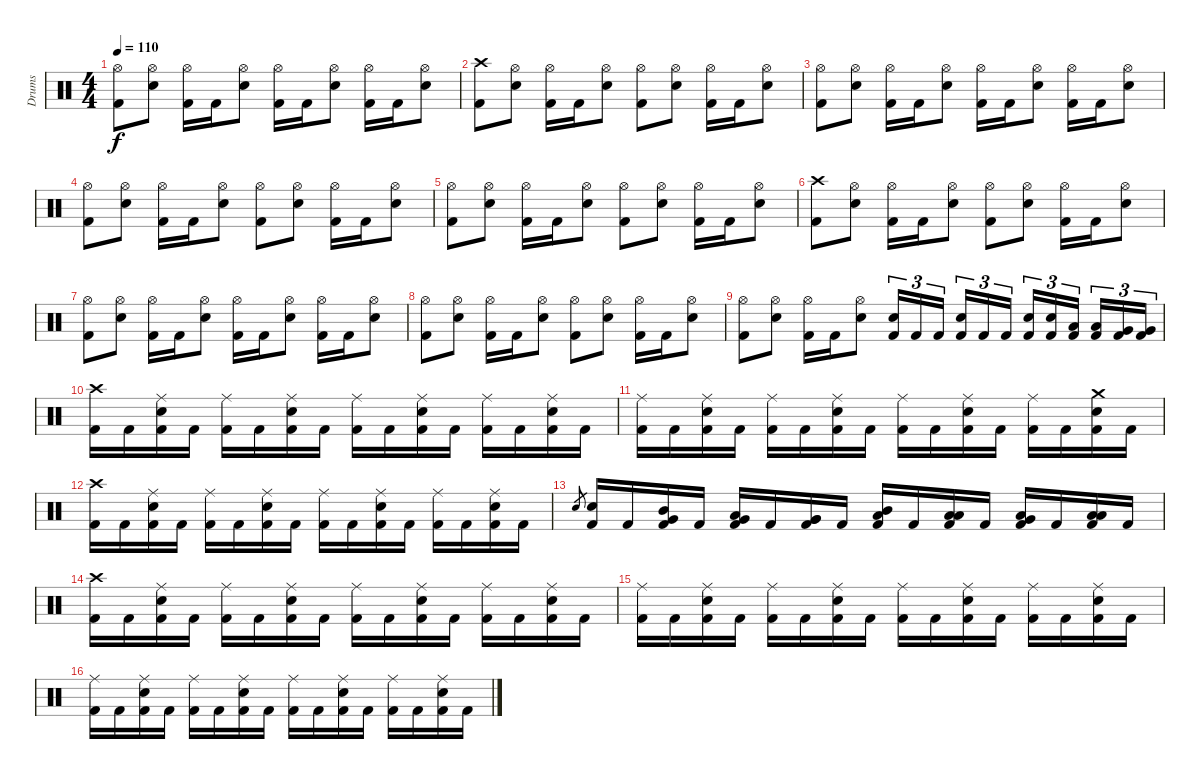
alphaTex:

\track ("Drums" "Drums") {instrument percussion}
\staff {score}
\articulation defaults
\ts (4 4)
\tempo 110
\clef neutral
\ks c
("Hi-Hat (open)" "Kick (hit) 2").8{dy f} ("Hi-Hat (open)" "Electric Snare (hit)").8 ("Hi-Hat (open)" "Kick (hit) 2").16 "Kick (hit) 2".16 ("Hi-Hat (open)" "Electric Snare (hit)").8 ("Hi-Hat (open)" "Kick (hit) 2").16 "Kick (hit) 2".16 ("Hi-Hat (open)" "Electric Snare (hit)").8 ("Hi-Hat (open)" "Kick (hit) 2").16 "Kick (hit) 2".16 ("Hi-Hat (open)" "Electric Snare (hit)").8 |
("Crash high (hit)" "Kick (hit) 2").8 ("Hi-Hat (open)" "Electric Snare (hit)").8 ("Hi-Hat (open)" "Kick (hit) 2").16 "Kick (hit) 2".16 ("Hi-Hat (open)" "Electric Snare (hit)").8 ("Hi-Hat (open)" "Kick (hit) 2").8 ("Hi-Hat (open)" "Electric Snare (hit)").8 ("Hi-Hat (open)" "Kick (hit) 2").16 "Kick (hit) 2".16 ("Hi-Hat (open)" "Electric Snare (hit)").8 |
("Hi-Hat (open)" "Kick (hit) 2").8 ("Hi-Hat (open)" "Electric Snare (hit)").8 ("Hi-Hat (open)" "Kick (hit) 2").16 "Kick (hit) 2".16 ("Hi-Hat (open)" "Electric Snare (hit)").8 ("Hi-Hat (open)" "Kick (hit) 2").16 "Kick (hit) 2".16 ("Hi-Hat (open)" "Electric Snare (hit)").8 ("Hi-Hat (open)" "Kick (hit) 2").16 "Kick (hit) 2".16 ("Hi-Hat (open)" "Electric Snare (hit)").8 |
("Hi-Hat (open)" "Kick (hit) 2").8 ("Hi-Hat (open)" "Electric Snare (hit)").8 ("Hi-Hat (open)" "Kick (hit) 2").16 "Kick (hit) 2".16 ("Hi-Hat (open)" "Electric Snare (hit)").8 ("Hi-Hat (open)" "Kick (hit) 2").8 ("Hi-Hat (open)" "Electric Snare (hit)").8 ("Hi-Hat (open)" "Kick (hit) 2").16 "Kick (hit) 2".16 ("Hi-Hat (open)" "Electric Snare (hit)").8 |
("Hi-Hat (open)" "Kick (hit) 2").8 ("Hi-Hat (open)" "Electric Snare (hit)").8 ("Hi-Hat (open)" "Kick (hit) 2").16 "Kick (hit) 2".16 ("Hi-Hat (open)" "Electric Snare (hit)").8 ("Hi-Hat (open)" "Kick (hit) 2").8 ("Hi-Hat (open)" "Electric Snare (hit)").8 ("Hi-Hat (open)" "Kick (hit) 2").16 "Kick (hit) 2".16 ("Hi-Hat (open)" "Electric Snare (hit)").8 |
("Crash high (hit)" "Kick (hit) 2").8 ("Hi-Hat (open)" "Electric Snare (hit)").8 ("Hi-Hat (open)" "Kick (hit) 2").16 "Kick (hit) 2".16 ("Hi-Hat (open)" "Electric Snare (hit)").8 ("Hi-Hat (open)" "Kick (hit) 2").8 ("Hi-Hat (open)" "Electric Snare (hit)").8 ("Hi-Hat (open)" "Kick (hit) 2").16 "Kick (hit) 2".16 ("Hi-Hat (open)" "Electric Snare (hit)").8 |
("Hi-Hat (open)" "Kick (hit) 2").8 ("Hi-Hat (open)" "Electric Snare (hit)").8 ("Hi-Hat (open)" "Kick (hit) 2").16 "Kick (hit) 2".16 ("Hi-Hat (open)" "Electric Snare (hit)").8 ("Hi-Hat (open)" "Kick (hit) 2").16 "Kick (hit) 2".16 ("Hi-Hat (open)" "Electric Snare (hit)").8 ("Hi-Hat (open)" "Kick (hit) 2").16 "Kick (hit) 2".16 ("Hi-Hat (open)" "Electric Snare (hit)").8 |
("Hi-Hat (open)" "Kick (hit) 2").8 ("Hi-Hat (open)" "Electric Snare (hit)").8 ("Hi-Hat (open)" "Kick (hit) 2").16 "Kick (hit) 2".16 ("Hi-Hat (open)" "Electric Snare (hit)").8 ("Hi-Hat (open)" "Kick (hit) 2").8 ("Hi-Hat (open)" "Electric Snare (hit)").8 ("Hi-Hat (open)" "Kick (hit) 2").16 "Kick (hit) 2".16 ("Hi-Hat (open)" "Electric Snare (hit)").8 |
("Hi-Hat (open)" "Kick (hit) 2").8 ("Hi-Hat (open)" "Electric Snare (hit)").8 ("Hi-Hat (open)" "Kick (hit) 2").16 "Kick (hit) 2".16 ("Hi-Hat (open)" "Electric Snare (hit)").8 ("Electric Snare (hit)" "Kick (hit) 2").16{tu (3 2)} "Kick (hit) 2".16{tu (3 2)} "Kick (hit) 2".16{tu (3 2)} ("Electric Snare (hit)" "Kick (hit) 2").16{tu (3 2)} "Kick (hit) 2".16{tu (3 2)} "Kick (hit) 2".16{tu (3 2)} ("Electric Snare (hit)" "Kick (hit) 2").16{tu (3 2)} ("Electric Snare (hit)" "Kick (hit) 2").16{tu (3 2)} ("Low Tom (hit)" "Kick (hit) 2").16{tu (3 2)} ("Low Tom (hit)" "Kick (hit) 2").16{tu (3 2)} ("Very Low Tom (hit)" "Kick (hit) 2").16{tu (3 2)} ("Very Low Tom (hit)" "Kick (hit) 2").16{tu (3 2)} |
("Crash high (hit)" "Kick (hit) 2").16 "Kick (hit) 2".16 ("Ride (middle)" "Electric Snare (hit)" "Kick (hit) 2").16 "Kick (hit) 2".16 ("Ride (middle)" "Kick (hit) 2").16 "Kick (hit) 2".16 ("Ride (middle)" "Electric Snare (hit)" "Kick (hit) 2").16 "Kick (hit) 2".16 ("Ride (middle)" "Kick (hit) 2").16 "Kick (hit) 2".16 ("Ride (middle)" "Electric Snare (hit)" "Kick (hit) 2").16 "Kick (hit) 2".16 ("Ride (middle)" "Kick (hit) 2").16 "Kick (hit) 2".16 ("Ride (middle)" "Electric Snare (hit)" "Kick (hit) 2").16 "Kick (hit) 2".16 |
("Ride (middle)" "Kick (hit) 2").16 "Kick (hit) 2".16 ("Ride (middle)" "Electric Snare (hit)" "Kick (hit) 2").16 "Kick (hit) 2".16 ("Ride (middle)" "Kick (hit) 2").16 "Kick (hit) 2".16 ("Ride (middle)" "Electric Snare (hit)" "Kick (hit) 2").16 "Kick (hit) 2".16 ("Ride (middle)" "Kick (hit) 2").16 "Kick (hit) 2".16 ("Ride (middle)" "Electric Snare (hit)" "Kick (hit) 2").16 "Kick (hit) 2".16 ("Ride (middle)" "Kick (hit) 2").16 "Kick (hit) 2".16 ("Crash medium (hit)" "Electric Snare (hit)" "Kick (hit) 2").16 "Kick (hit) 2".16 |
("Crash high (hit)" "Kick (hit) 2").16 "Kick (hit) 2".16 ("Ride (middle)" "Electric Snare (hit)" "Kick (hit) 2").16 "Kick (hit) 2".16 ("Ride (middle)" "Kick (hit) 2").16 "Kick (hit) 2".16 ("Ride (middle)" "Electric Snare (hit)" "Kick (hit) 2").16 "Kick (hit) 2".16 ("Ride (middle)" "Kick (hit) 2").16 "Kick (hit) 2".16 ("Ride (middle)" "Electric Snare (hit)" "Kick (hit) 2").16 "Kick (hit) 2".16 ("Ride (middle)" "Kick (hit) 2").16 "Kick (hit) 2".16 ("Ride (middle)" "Electric Snare (hit)" "Kick (hit) 2").16 "Kick (hit) 2".16 |
"Electric Snare (hit)".8{gr} ("Electric Snare (hit)" "Kick (hit) 2").16 "Kick (hit) 2".16 ("Mid Tom (hit)" "Very Low Tom (hit)" "Kick (hit) 2").16 "Kick (hit) 2".16 ("Low Tom (hit)" "Very Low Tom (hit)" "Kick (hit) 2").16 "Kick (hit) 2".16 ("Very Low Tom (hit)" "Very Low Tom (hit)" "Kick (hit) 2").16 "Kick (hit) 2".16 ("Mid Tom (hit)" "Low Floor Tom (hit)" "Kick (hit) 2").16 "Kick (hit) 2".16 ("Low Tom (hit)" "Low Floor Tom (hit)" "Kick (hit) 2").16 "Kick (hit) 2".16 ("Very Low Tom (hit)" "Low Floor Tom (hit)" "Kick (hit) 2").16 "Kick (hit) 2".16 ("Low Floor Tom (hit)" "Low Floor Tom (hit)" "Kick (hit) 2").16 "Kick (hit) 2".16 |
("Crash high (hit)" "Kick (hit) 2").16 "Kick (hit) 2".16 ("Ride (middle)" "Electric Snare (hit)" "Kick (hit) 2").16 "Kick (hit) 2".16 ("Ride (middle)" "Kick (hit) 2").16 "Kick (hit) 2".16 ("Ride (middle)" "Electric Snare (hit)" "Kick (hit) 2").16 "Kick (hit) 2".16 ("Ride (middle)" "Kick (hit) 2").16 "Kick (hit) 2".16 ("Ride (middle)" "Electric Snare (hit)" "Kick (hit) 2").16 "Kick (hit) 2".16 ("Ride (middle)" "Kick (hit) 2").16 "Kick (hit) 2".16 ("Ride (middle)" "Electric Snare (hit)" "Kick (hit) 2").16 "Kick (hit) 2".16 |
("Ride (middle)" "Kick (hit) 2").16 "Kick (hit) 2".16 ("Ride (middle)" "Electric Snare (hit)" "Kick (hit) 2").16 "Kick (hit) 2".16 ("Ride (middle)" "Kick (hit) 2").16 "Kick (hit) 2".16 ("Ride (middle)" "Electric Snare (hit)" "Kick (hit) 2").16 "Kick (hit) 2".16 ("Ride (middle)" "Kick (hit) 2").16 "Kick (hit) 2".16 ("Ride (middle)" "Electric Snare (hit)" "Kick (hit) 2").16 "Kick (hit) 2".16 ("Ride (middle)" "Kick (hit) 2").16 "Kick (hit) 2".16 ("Ride (middle)" "Electric Snare (hit)" "Kick (hit) 2").16 "Kick (hit) 2".16 |
("Ride (middle)" "Kick (hit) 2").16 "Kick (hit) 2".16 ("Ride (middle)" "Electric Snare (hit)" "Kick (hit) 2").16 "Kick (hit) 2".16 ("Ride (middle)" "Kick (hit) 2").16 "Kick (hit) 2".16 ("Ride (middle)" "Electric Snare (hit)" "Kick (hit) 2").16 "Kick (hit) 2".16 ("Ride (middle)" "Kick (hit) 2").16 "Kick (hit) 2".16 ("Ride (middle)" "Electric Snare (hit)" "Kick (hit) 2").16 "Kick (hit) 2".16 ("Ride (middle)" "Kick (hit) 2").16 "Kick (hit) 2".16 ("Ride (middle)" "Electric Snare (hit)" "Kick (hit) 2").16 "Kick (hit) 2".16
